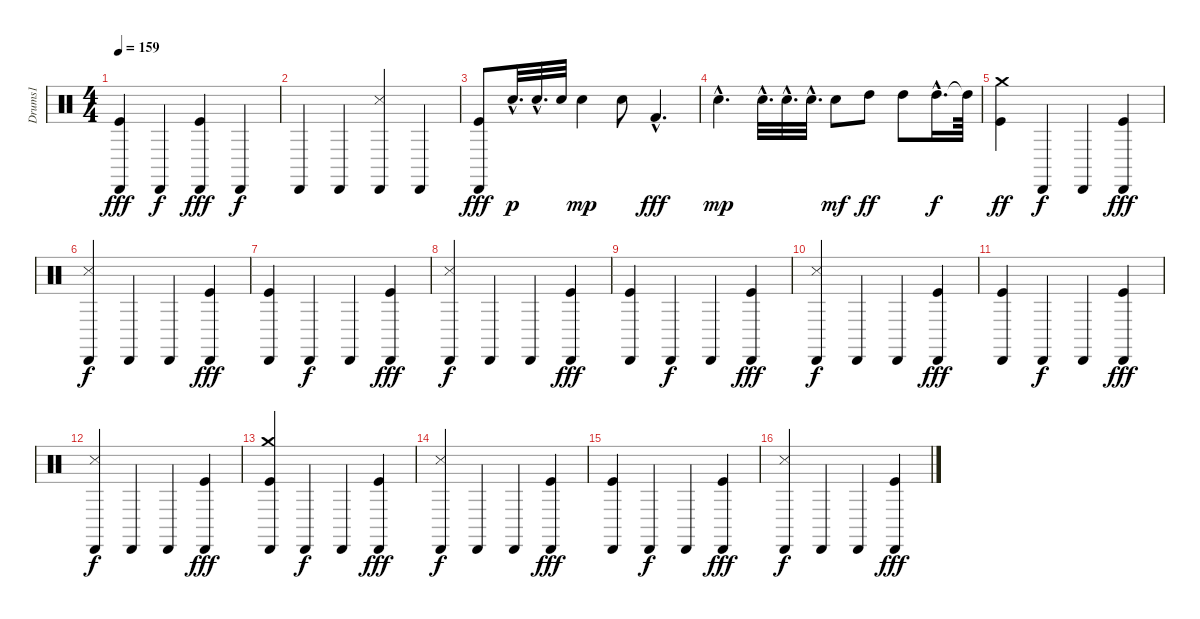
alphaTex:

\track ("Drums1" "Drums1") {instrument percussion}
\staff {score}
\articulation defaults
\ts (4 4)
\tempo 159
\clef neutral
\ks c
("Cabasa (hit)" "Kick (hit)").4{dy fff} "Cabasa (hit)".4{dy f} ("Cabasa (hit)" "Kick (hit)").4{dy fff} "Cabasa (hit)".4{dy f} |
"Cabasa (hit)".4 "Cabasa (hit)".4 ("Cabasa (hit)" "Snare (side stick) 3").4 "Cabasa (hit)".4 |
("Cabasa (hit)" "Kick (hit)").8{dy fff} "Snare (hit) 2"{hac}.32{d dy p} "Snare (hit) 2"{hac}.32{d} "Snare (hit) 2".32 "Electric Snare (hit)".4{dy mp} "Electric Snare (hit)".8 "Kick (hit) 2"{hac}.4{d dy fff} |
"Electric Snare (hit)"{hac}.4{d dy mp} "Snare (hit) 2"{hac}.32{d} "Snare (hit) 2"{hac}.32{d} "Snare (hit) 2"{hac}.32{d} "Electric Snare (hit)".8{dy mf} "High Tom (hit)".8{dy ff} "High Tom (hit)".8 "High Tom (hit)"{hac}.16{d dy f} "High Tom (hit)"{t}.64 |
("Crash medium (hit)" "Kick (hit)").4{dy ff} "Cabasa (hit)".4{dy f} "Cabasa (hit)".4 ("Cabasa (hit)" "Kick (hit)").4{dy fff} |
("Cabasa (hit)" "Snare (side stick) 3").4{dy f} "Cabasa (hit)".4 "Cabasa (hit)".4 ("Cabasa (hit)" "Kick (hit)").4{dy fff} |
("Cabasa (hit)" "Kick (hit)").4 "Cabasa (hit)".4{dy f} "Cabasa (hit)".4 ("Cabasa (hit)" "Kick (hit)").4{dy fff} |
("Cabasa (hit)" "Snare (side stick) 3").4{dy f} "Cabasa (hit)".4 "Cabasa (hit)".4 ("Cabasa (hit)" "Kick (hit)").4{dy fff} |
("Cabasa (hit)" "Kick (hit)").4 "Cabasa (hit)".4{dy f} "Cabasa (hit)".4 ("Cabasa (hit)" "Kick (hit)").4{dy fff} |
("Cabasa (hit)" "Snare (side stick) 3").4{dy f} "Cabasa (hit)".4 "Cabasa (hit)".4 ("Cabasa (hit)" "Kick (hit)").4{dy fff} |
("Cabasa (hit)" "Kick (hit)").4 "Cabasa (hit)".4{dy f} "Cabasa (hit)".4 ("Cabasa (hit)" "Kick (hit)").4{dy fff} |
("Cabasa (hit)" "Snare (side stick) 3").4{dy f} "Cabasa (hit)".4 "Cabasa (hit)".4 ("Cabasa (hit)" "Kick (hit)").4{dy fff} |
("Cabasa (hit)" "Kick (hit)" "Crash medium (hit)").4 "Cabasa (hit)".4{dy f} "Cabasa (hit)".4 ("Cabasa (hit)" "Kick (hit)").4{dy fff} |
("Cabasa (hit)" "Snare (side stick) 3").4{dy f} "Cabasa (hit)".4 "Cabasa (hit)".4 ("Cabasa (hit)" "Kick (hit)").4{dy fff} |
("Cabasa (hit)" "Kick (hit)").4 "Cabasa (hit)".4{dy f} "Cabasa (hit)".4 ("Cabasa (hit)" "Kick (hit)").4{dy fff} |
("Cabasa (hit)" "Snare (side stick) 3").4{dy f} "Cabasa (hit)".4 "Cabasa (hit)".4 ("Cabasa (hit)" "Kick (hit)").4{dy fff}
